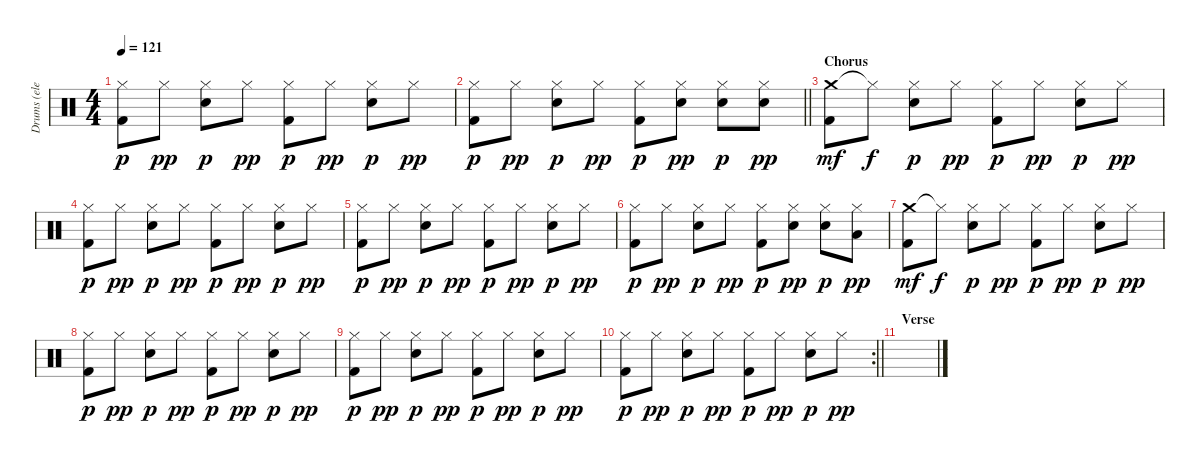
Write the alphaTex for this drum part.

\track ("Drums (electric)" "Drums (ele") {instrument percussion}
\staff {score}
\articulation defaults
\ts (4 4)
\tempo 121
\clef neutral
\ks c
("Hi-Hat (closed)" "Kick (hit) 2").8{dy p} "Hi-Hat (closed)".8{dy pp} ("Hi-Hat (closed)" "Snare (hit) 2").8{dy p} "Hi-Hat (closed)".8{dy pp} ("Hi-Hat (closed)" "Kick (hit) 2").8{dy p} "Hi-Hat (closed)".8{dy pp} ("Hi-Hat (closed)" "Snare (hit) 2").8{dy p} "Hi-Hat (closed)".8{dy pp} |
\barLineRight lightlight
("Hi-Hat (closed)" "Kick (hit) 2").8{dy p} "Hi-Hat (closed)".8{dy pp} ("Hi-Hat (closed)" "Snare (hit) 2").8{dy p} "Hi-Hat (closed)".8{dy pp} ("Hi-Hat (closed)" "Kick (hit) 2").8{dy p} ("Hi-Hat (closed)" "Snare (hit) 2").8{dy pp} ("Hi-Hat (closed)" "Snare (hit) 2").8{dy p} ("Hi-Hat (closed)" "Snare (hit) 2").8{dy pp} |
\section ("" "Chorus")
("Crash medium (hit)" "Kick (hit) 2").8{dy mf} "Hi-Hat (closed)"{t}.8{dy f} ("Hi-Hat (closed)" "Snare (hit) 2").8{dy p} "Hi-Hat (closed)".8{dy pp} ("Hi-Hat (closed)" "Kick (hit) 2").8{dy p} "Hi-Hat (closed)".8{dy pp} ("Hi-Hat (closed)" "Snare (hit) 2").8{dy p} "Hi-Hat (closed)".8{dy pp} |
("Hi-Hat (closed)" "Kick (hit) 2").8{dy p} "Hi-Hat (closed)".8{dy pp} ("Hi-Hat (closed)" "Snare (hit) 2").8{dy p} "Hi-Hat (closed)".8{dy pp} ("Hi-Hat (closed)" "Kick (hit) 2").8{dy p} "Hi-Hat (closed)".8{dy pp} ("Hi-Hat (closed)" "Snare (hit) 2").8{dy p} "Hi-Hat (closed)".8{dy pp} |
("Hi-Hat (closed)" "Kick (hit) 2").8{dy p} "Hi-Hat (closed)".8{dy pp} ("Hi-Hat (closed)" "Snare (hit) 2").8{dy p} "Hi-Hat (closed)".8{dy pp} ("Hi-Hat (closed)" "Kick (hit) 2").8{dy p} "Hi-Hat (closed)".8{dy pp} ("Hi-Hat (closed)" "Snare (hit) 2").8{dy p} "Hi-Hat (closed)".8{dy pp} |
("Hi-Hat (closed)" "Kick (hit) 2").8{dy p} "Hi-Hat (closed)".8{dy pp} ("Hi-Hat (closed)" "Snare (hit) 2").8{dy p} "Hi-Hat (closed)".8{dy pp} ("Hi-Hat (closed)" "Kick (hit) 2").8{dy p} ("Hi-Hat (closed)" "Snare (hit) 2").8{dy pp} ("Hi-Hat (closed)" "Snare (hit) 2").8{dy p} ("Hi-Hat (closed)" "Low Tom (hit)").8{dy pp} |
("Crash medium (hit)" "Kick (hit) 2").8{dy mf} "Hi-Hat (closed)"{t}.8{dy f} ("Hi-Hat (closed)" "Snare (hit) 2").8{dy p} "Hi-Hat (closed)".8{dy pp} ("Hi-Hat (closed)" "Kick (hit) 2").8{dy p} "Hi-Hat (closed)".8{dy pp} ("Hi-Hat (closed)" "Snare (hit) 2").8{dy p} "Hi-Hat (closed)".8{dy pp} |
("Hi-Hat (closed)" "Kick (hit) 2").8{dy p} "Hi-Hat (closed)".8{dy pp} ("Hi-Hat (closed)" "Snare (hit) 2").8{dy p} "Hi-Hat (closed)".8{dy pp} ("Hi-Hat (closed)" "Kick (hit) 2").8{dy p} "Hi-Hat (closed)".8{dy pp} ("Hi-Hat (closed)" "Snare (hit) 2").8{dy p} "Hi-Hat (closed)".8{dy pp} |
("Hi-Hat (closed)" "Kick (hit) 2").8{dy p} "Hi-Hat (closed)".8{dy pp} ("Hi-Hat (closed)" "Snare (hit) 2").8{dy p} "Hi-Hat (closed)".8{dy pp} ("Hi-Hat (closed)" "Kick (hit) 2").8{dy p} "Hi-Hat (closed)".8{dy pp} ("Hi-Hat (closed)" "Snare (hit) 2").8{dy p} "Hi-Hat (closed)".8{dy pp} |
\rc 2
\barLineRight lightlight
("Hi-Hat (closed)" "Kick (hit) 2").8{dy p} "Hi-Hat (closed)".8{dy pp} ("Hi-Hat (closed)" "Snare (hit) 2").8{dy p} "Hi-Hat (closed)".8{dy pp} ("Hi-Hat (closed)" "Kick (hit) 2").8{dy p} "Hi-Hat (closed)".8{dy pp} ("Hi-Hat (closed)" "Snare (hit) 2").8{dy p} "Hi-Hat (closed)".8{dy pp} |
\section ("" "Verse")
